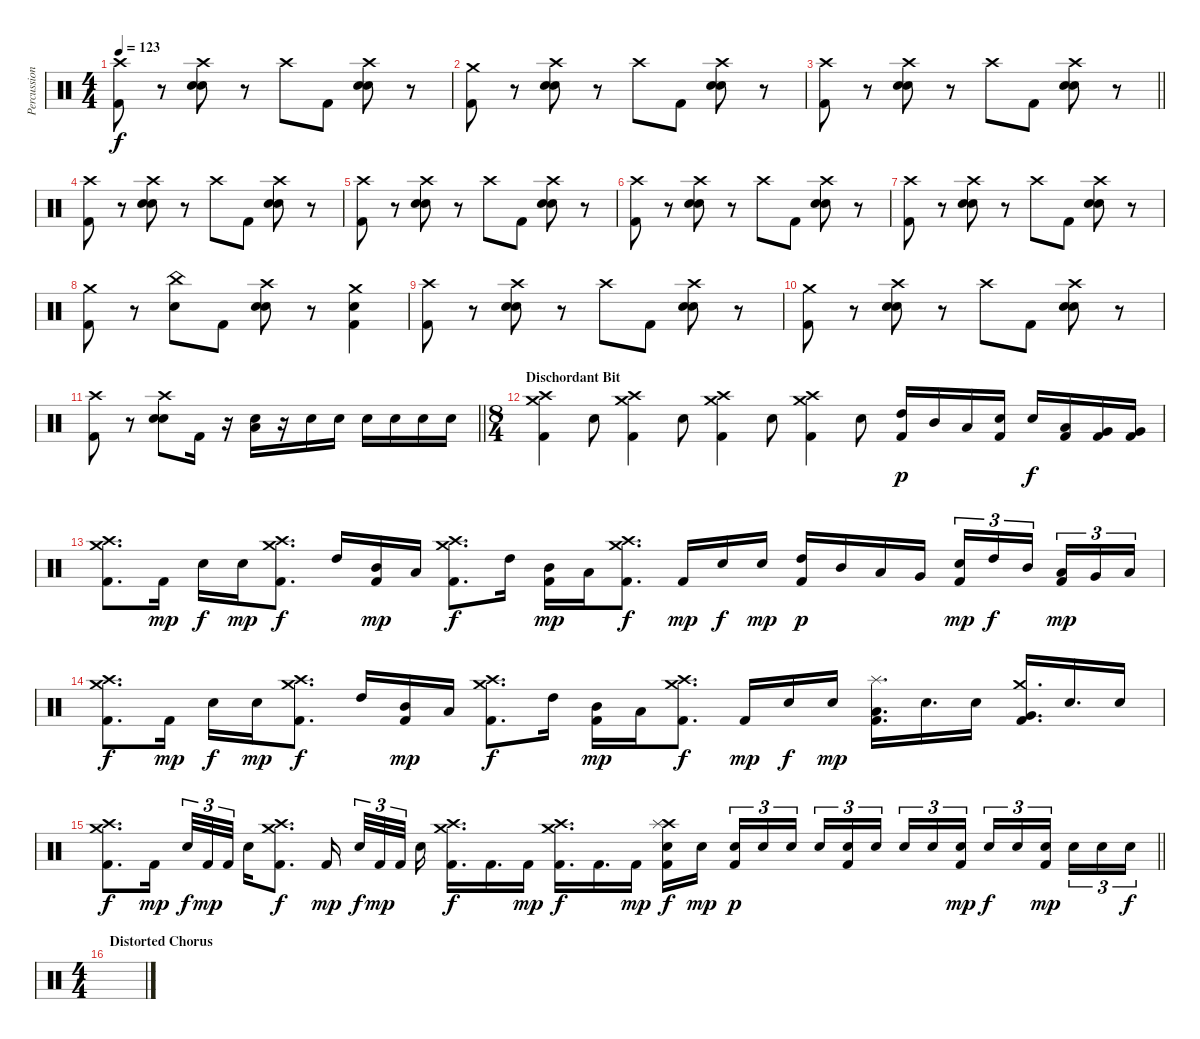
\track ("Percussion" "Percussion") {instrument percussion}
\staff {score}
\articulation defaults
\ts (4 4)
\tempo 123
\clef neutral
\ks c
("Crash high (hit)" "Kick (hit) 2").8{dy f} r.8 ("Crash high (hit)" "Hand Clap (hit)" "Snare (hit) 2").8 r.8 "Crash high (hit)".8 "Kick (hit) 2".8 ("Crash high (hit)" "Hand Clap (hit)" "Snare (hit) 2").8 r.8 |
("Crash medium (hit)" "Kick (hit) 2").8 r.8 ("Crash high (hit)" "Hand Clap (hit)" "Snare (hit) 2").8 r.8 "Crash high (hit)".8 "Kick (hit) 2".8 ("Crash high (hit)" "Hand Clap (hit)" "Snare (hit) 2").8 r.8 |
\barLineRight lightlight
("Crash high (hit)" "Kick (hit) 2").8 r.8 ("Crash high (hit)" "Hand Clap (hit)" "Snare (hit) 2").8 r.8 "Crash high (hit)".8 "Kick (hit) 2".8 ("Crash high (hit)" "Hand Clap (hit)" "Snare (hit) 2").8 r.8 |
("Crash high (hit)" "Kick (hit) 2").8 r.8 ("Crash high (hit)" "Hand Clap (hit)" "Snare (hit) 2").8 r.8 "Crash high (hit)".8 "Kick (hit) 2".8 ("Crash high (hit)" "Hand Clap (hit)" "Snare (hit) 2").8 r.8 |
("Crash high (hit)" "Kick (hit) 2").8 r.8 ("Crash high (hit)" "Hand Clap (hit)" "Snare (hit) 2").8 r.8 "Crash high (hit)".8 "Kick (hit) 2".8 ("Crash high (hit)" "Hand Clap (hit)" "Snare (hit) 2").8 r.8 |
("Crash high (hit)" "Kick (hit) 2").8 r.8 ("Crash high (hit)" "Hand Clap (hit)" "Snare (hit) 2").8 r.8 "Crash high (hit)".8 "Kick (hit) 2".8 ("Crash high (hit)" "Hand Clap (hit)" "Snare (hit) 2").8 r.8 |
("Crash high (hit)" "Kick (hit) 2").8 r.8 ("Crash high (hit)" "Hand Clap (hit)" "Snare (hit) 2").8 r.8 "Crash high (hit)".8 "Kick (hit) 2".8 ("Crash high (hit)" "Hand Clap (hit)" "Snare (hit) 2").8 r.8 |
("Crash medium (hit)" "Kick (hit) 2").8 r.8 ("China (hit)" "Hand Clap (hit)").8 "Kick (hit) 2".8 ("Crash high (hit)" "Hand Clap (hit)" "Snare (hit) 2").8 r.8 ("Crash medium (hit)" "Hand Clap (hit)" "Kick (hit) 2").4 |
("Crash high (hit)" "Kick (hit) 2").8 r.8 ("Crash high (hit)" "Hand Clap (hit)" "Snare (hit) 2").8 r.8 "Crash high (hit)".8 "Kick (hit) 2".8 ("Crash high (hit)" "Hand Clap (hit)" "Snare (hit) 2").8 r.8 |
("Crash medium (hit)" "Kick (hit) 2").8 r.8 ("Crash high (hit)" "Hand Clap (hit)" "Snare (hit) 2").8 r.8 "Crash high (hit)".8 "Kick (hit) 2".8 ("Crash high (hit)" "Hand Clap (hit)" "Snare (hit) 2").8 r.8 |
\barLineRight lightlight
("Crash high (hit)" "Kick (hit) 2").8 r.8 ("Crash high (hit)" "Hand Clap (hit)" "Snare (hit) 2").8 "Kick (hit) 2".16 r.16 ("Low Floor Tom (hit)" "Snare (hit) 2").16 r.16 "Snare (hit) 2".16 "Snare (hit) 2".16 "Snare (hit) 2".16 "Snare (hit) 2".16 "Snare (hit) 2".16 "Snare (hit) 2".16 |
\ts (8 4)
\section ("" "Dischordant Bit")
("Crash high (hit)" "Crash medium (hit)" "Kick (hit) 2").4 "Snare (hit) 2".8 ("Crash high (hit)" "Crash medium (hit)" "Kick (hit) 2").4 "Snare (hit) 2".8 ("Crash high (hit)" "Crash medium (hit)" "Kick (hit) 2").4 "Snare (hit) 2".8 ("Crash high (hit)" "Crash medium (hit)" "Kick (hit) 2").4 "Snare (hit) 2".8 ("High Tom (hit)" "Kick (hit) 2").16{dy p} "Mid Tom (hit)".16 "Low Tom (hit)".16 ("Snare (hit) 2" "Kick (hit) 2").16 "Snare (hit) 2".16{dy f} ("Low Tom (hit)" "Kick (hit) 2").16 ("Very Low Tom (hit)" "Kick (hit) 2").16 ("Very Low Tom (hit)" "Kick (hit) 2").16 |
("Crash high (hit)" "Crash medium (hit)" "Kick (hit) 2").8{d} "Kick (hit) 2".16{dy mp} "Snare (hit) 2".16{dy f} "Snare (hit) 2".16{dy mp} ("Crash high (hit)" "Crash medium (hit)" "Kick (hit) 2").8{d dy f} "High Tom (hit)".16 ("Mid Tom (hit)" "Kick (hit) 2").16{dy mp} "Low Tom (hit)".16 ("Crash high (hit)" "Crash medium (hit)" "Kick (hit) 2").8{d dy f} "High Tom (hit)".16 ("Mid Tom (hit)" "Kick (hit) 2").16{dy mp} "Low Tom (hit)".16 ("Crash high (hit)" "Crash medium (hit)" "Kick (hit) 2").8{d dy f} "Kick (hit) 2".16{dy mp} "Snare (hit) 2".16{dy f} "Snare (hit) 2".16{dy mp} ("High Tom (hit)" "Kick (hit) 2").16{dy p} "Mid Tom (hit)".16 "Low Tom (hit)".16 "Very Low Tom (hit)".16 ("Snare (hit) 2" "Kick (hit) 2").16{tu (3 2) dy mp} "High Tom (hit)".16{tu (3 2) dy f} "Mid Tom (hit)".16{tu (3 2) beam splitsecondary} ("Low Tom (hit)" "Kick (hit) 2").16{tu (3 2) dy mp} "Very Low Tom (hit)".16{tu (3 2)} "Low Floor Tom (hit)".16{tu (3 2)} |
("Crash high (hit)" "Crash medium (hit)" "Kick (hit) 2").8{d dy f} "Kick (hit) 2".16{dy mp} "Snare (hit) 2".16{dy f} "Snare (hit) 2".16{dy mp} ("Crash high (hit)" "Crash medium (hit)" "Kick (hit) 2").8{d dy f} "High Tom (hit)".16 ("Mid Tom (hit)" "Kick (hit) 2").16{dy mp} "Low Tom (hit)".16 ("Crash high (hit)" "Crash medium (hit)" "Kick (hit) 2").8{d dy f} "High Tom (hit)".16 ("Mid Tom (hit)" "Kick (hit) 2").16{dy mp} "Low Tom (hit)".16 ("Crash high (hit)" "Crash medium (hit)" "Kick (hit) 2").8{d dy f} "Kick (hit) 2".16{dy mp} "Snare (hit) 2".16{dy f} "Snare (hit) 2".16{dy mp} ("Splash (hit)" "Low Tom (hit)" "Kick (hit) 2").16{d} "Snare (hit) 2".16{d} "Snare (hit) 2".16 ("Crash medium (hit)" "Very Low Tom (hit)" "Kick (hit) 2").16{d} "Snare (hit) 2".16{d} "Snare (hit) 2".16 |
\barLineRight lightlight
("Crash high (hit)" "Crash medium (hit)" "Kick (hit) 2").8{d dy f} "Kick (hit) 2".16{dy mp} "Snare (hit) 2".32{tu (3 2) dy f} "Kick (hit) 2".32{tu (3 2) dy mp} "Kick (hit) 2".32{tu (3 2) beam splitsecondary} "Snare (hit) 2".16 ("Crash high (hit)" "Crash medium (hit)" "Kick (hit) 2").8{d dy f} "Kick (hit) 2".16{dy mp beam splitsecondary} "Snare (hit) 2".32{tu (3 2) dy f} "Kick (hit) 2".32{tu (3 2) dy mp} "Kick (hit) 2".32{tu (3 2) beam splitsecondary} "Snare (hit) 2".16 ("Crash high (hit)" "Crash medium (hit)" "Kick (hit) 2").16{d dy f} "Kick (hit) 2".16{d} "Kick (hit) 2".16{dy mp} ("Crash high (hit)" "Crash medium (hit)" "Kick (hit) 2").16{d dy f} "Kick (hit) 2".16{d} "Kick (hit) 2".16{dy mp} ("Crash high (hit)" "Splash (hit)" "Snare (hit) 2" "Kick (hit) 2").16{dy f} "Snare (hit) 2".16{dy mp beam splitsecondary} ("Snare (hit) 2" "Kick (hit) 2").16{tu (3 2) dy p} "Snare (hit) 2".16{tu (3 2)} "Snare (hit) 2".16{tu (3 2)} "Snare (hit) 2".16{tu (3 2)} ("Snare (hit) 2" "Kick (hit) 2").16{tu (3 2)} "Snare (hit) 2".16{tu (3 2) beam splitsecondary} "Snare (hit) 2".16{tu (3 2)} "Snare (hit) 2".16{tu (3 2)} ("Snare (hit) 2" "Kick (hit) 2").16{tu (3 2) dy mp} "Snare (hit) 2".16{tu (3 2) dy f} "Snare (hit) 2".16{tu (3 2)} ("Snare (hit) 2" "Kick (hit) 2").16{tu (3 2) dy mp beam splitsecondary} "Snare (hit) 2".16{tu (3 2)} "Snare (hit) 2".16{tu (3 2)} "Snare (hit) 2".16{tu (3 2) dy f} |
\ts (4 4)
\section ("" "Distorted Chorus")
